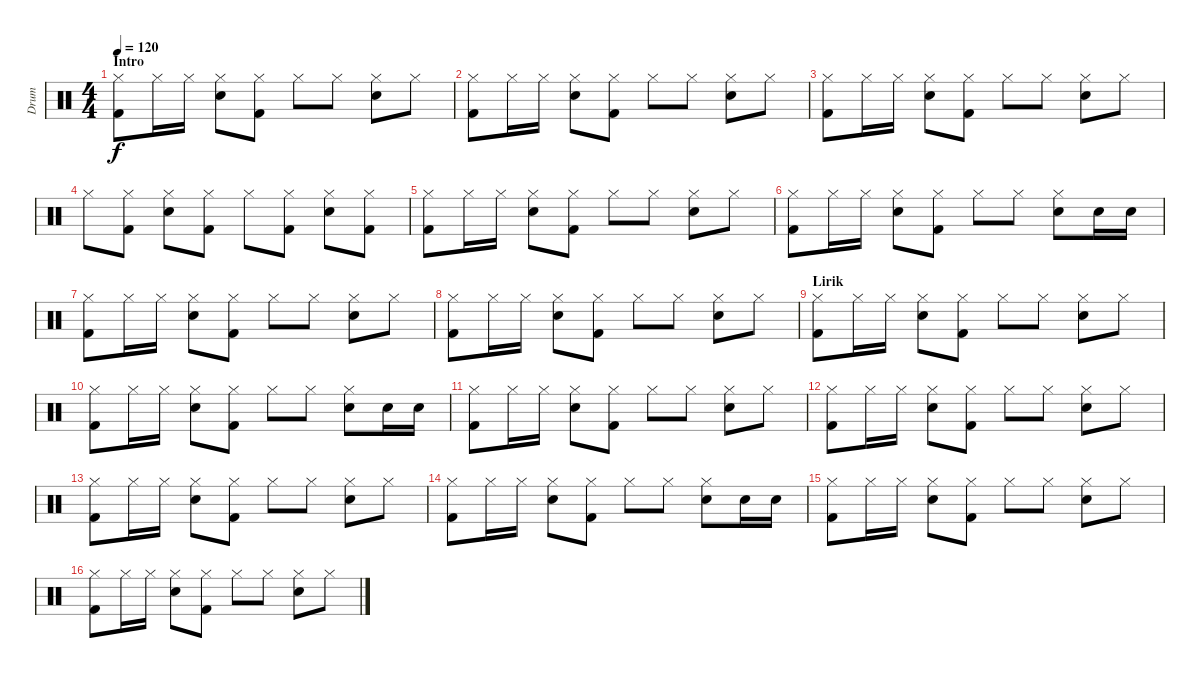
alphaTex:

\track ("Drum" "Drum") {instrument percussion}
\staff {score}
\articulation defaults
\ts (4 4)
\section ("" "Intro")
\tempo 120
\clef neutral
\ks c
("Kick (hit) 2" "Hi-Hat (closed)").8{dy f} "Hi-Hat (closed)".16 "Hi-Hat (closed)".16 ("Snare (hit) 2" "Hi-Hat (closed)").8 ("Kick (hit) 2" "Hi-Hat (closed)").8 "Hi-Hat (closed)".8 "Hi-Hat (closed)".8 ("Snare (hit) 2" "Hi-Hat (closed)").8 "Hi-Hat (closed)".8 |
("Kick (hit) 2" "Hi-Hat (closed)").8 "Hi-Hat (closed)".16 "Hi-Hat (closed)".16 ("Snare (hit) 2" "Hi-Hat (closed)").8 ("Kick (hit) 2" "Hi-Hat (closed)").8 "Hi-Hat (closed)".8 "Hi-Hat (closed)".8 ("Snare (hit) 2" "Hi-Hat (closed)").8 "Hi-Hat (closed)".8 |
("Kick (hit) 2" "Hi-Hat (closed)").8 "Hi-Hat (closed)".16 "Hi-Hat (closed)".16 ("Snare (hit) 2" "Hi-Hat (closed)").8 ("Kick (hit) 2" "Hi-Hat (closed)").8 "Hi-Hat (closed)".8 "Hi-Hat (closed)".8 ("Snare (hit) 2" "Hi-Hat (closed)").8 "Hi-Hat (closed)".8 |
"Hi-Hat (closed)".8 ("Kick (hit) 2" "Hi-Hat (closed)").8 ("Snare (hit) 2" "Hi-Hat (closed)").8 ("Kick (hit) 2" "Hi-Hat (closed)").8 "Hi-Hat (closed)".8 ("Kick (hit) 2" "Hi-Hat (closed)").8 ("Snare (hit) 2" "Hi-Hat (closed)").8 ("Kick (hit) 2" "Hi-Hat (closed)").8 |
("Kick (hit) 2" "Hi-Hat (closed)").8 "Hi-Hat (closed)".16 "Hi-Hat (closed)".16 ("Snare (hit) 2" "Hi-Hat (closed)").8 ("Kick (hit) 2" "Hi-Hat (closed)").8 "Hi-Hat (closed)".8 "Hi-Hat (closed)".8 ("Snare (hit) 2" "Hi-Hat (closed)").8 "Hi-Hat (closed)".8 |
("Kick (hit) 2" "Hi-Hat (closed)").8 "Hi-Hat (closed)".16 "Hi-Hat (closed)".16 ("Snare (hit) 2" "Hi-Hat (closed)").8 ("Kick (hit) 2" "Hi-Hat (closed)").8 "Hi-Hat (closed)".8 "Hi-Hat (closed)".8 ("Snare (hit) 2" "Hi-Hat (closed)").8 "Snare (hit) 2".16 "Snare (hit) 2".16 |
("Kick (hit) 2" "Hi-Hat (closed)").8 "Hi-Hat (closed)".16 "Hi-Hat (closed)".16 ("Snare (hit) 2" "Hi-Hat (closed)").8 ("Kick (hit) 2" "Hi-Hat (closed)").8 "Hi-Hat (closed)".8 "Hi-Hat (closed)".8 ("Snare (hit) 2" "Hi-Hat (closed)").8 "Hi-Hat (closed)".8 |
("Kick (hit) 2" "Hi-Hat (closed)").8 "Hi-Hat (closed)".16 "Hi-Hat (closed)".16 ("Snare (hit) 2" "Hi-Hat (closed)").8 ("Kick (hit) 2" "Hi-Hat (closed)").8 "Hi-Hat (closed)".8 "Hi-Hat (closed)".8 ("Snare (hit) 2" "Hi-Hat (closed)").8 "Hi-Hat (closed)".8 |
\section ("" "Lirik")
("Kick (hit) 2" "Hi-Hat (closed)").8 "Hi-Hat (closed)".16 "Hi-Hat (closed)".16 ("Snare (hit) 2" "Hi-Hat (closed)").8 ("Kick (hit) 2" "Hi-Hat (closed)").8 "Hi-Hat (closed)".8 "Hi-Hat (closed)".8 ("Snare (hit) 2" "Hi-Hat (closed)").8 "Hi-Hat (closed)".8 |
("Kick (hit) 2" "Hi-Hat (closed)").8 "Hi-Hat (closed)".16 "Hi-Hat (closed)".16 ("Snare (hit) 2" "Hi-Hat (closed)").8 ("Kick (hit) 2" "Hi-Hat (closed)").8 "Hi-Hat (closed)".8 "Hi-Hat (closed)".8 ("Snare (hit) 2" "Hi-Hat (closed)").8 "Snare (hit) 2".16 "Snare (hit) 2".16 |
("Kick (hit) 2" "Hi-Hat (closed)").8 "Hi-Hat (closed)".16 "Hi-Hat (closed)".16 ("Snare (hit) 2" "Hi-Hat (closed)").8 ("Kick (hit) 2" "Hi-Hat (closed)").8 "Hi-Hat (closed)".8 "Hi-Hat (closed)".8 ("Snare (hit) 2" "Hi-Hat (closed)").8 "Hi-Hat (closed)".8 |
("Kick (hit) 2" "Hi-Hat (closed)").8 "Hi-Hat (closed)".16 "Hi-Hat (closed)".16 ("Snare (hit) 2" "Hi-Hat (closed)").8 ("Kick (hit) 2" "Hi-Hat (closed)").8 "Hi-Hat (closed)".8 "Hi-Hat (closed)".8 ("Snare (hit) 2" "Hi-Hat (closed)").8 "Hi-Hat (closed)".8 |
("Kick (hit) 2" "Hi-Hat (closed)").8 "Hi-Hat (closed)".16 "Hi-Hat (closed)".16 ("Snare (hit) 2" "Hi-Hat (closed)").8 ("Kick (hit) 2" "Hi-Hat (closed)").8 "Hi-Hat (closed)".8 "Hi-Hat (closed)".8 ("Snare (hit) 2" "Hi-Hat (closed)").8 "Hi-Hat (closed)".8 |
("Kick (hit) 2" "Hi-Hat (closed)").8 "Hi-Hat (closed)".16 "Hi-Hat (closed)".16 ("Snare (hit) 2" "Hi-Hat (closed)").8 ("Kick (hit) 2" "Hi-Hat (closed)").8 "Hi-Hat (closed)".8 "Hi-Hat (closed)".8 ("Snare (hit) 2" "Hi-Hat (closed)").8 "Snare (hit) 2".16 "Snare (hit) 2".16 |
("Kick (hit) 2" "Hi-Hat (closed)").8 "Hi-Hat (closed)".16 "Hi-Hat (closed)".16 ("Snare (hit) 2" "Hi-Hat (closed)").8 ("Kick (hit) 2" "Hi-Hat (closed)").8 "Hi-Hat (closed)".8 "Hi-Hat (closed)".8 ("Snare (hit) 2" "Hi-Hat (closed)").8 "Hi-Hat (closed)".8 |
("Kick (hit) 2" "Hi-Hat (closed)").8 "Hi-Hat (closed)".16 "Hi-Hat (closed)".16 ("Snare (hit) 2" "Hi-Hat (closed)").8 ("Kick (hit) 2" "Hi-Hat (closed)").8 "Hi-Hat (closed)".8 "Hi-Hat (closed)".8 ("Snare (hit) 2" "Hi-Hat (closed)").8 "Hi-Hat (closed)".8
